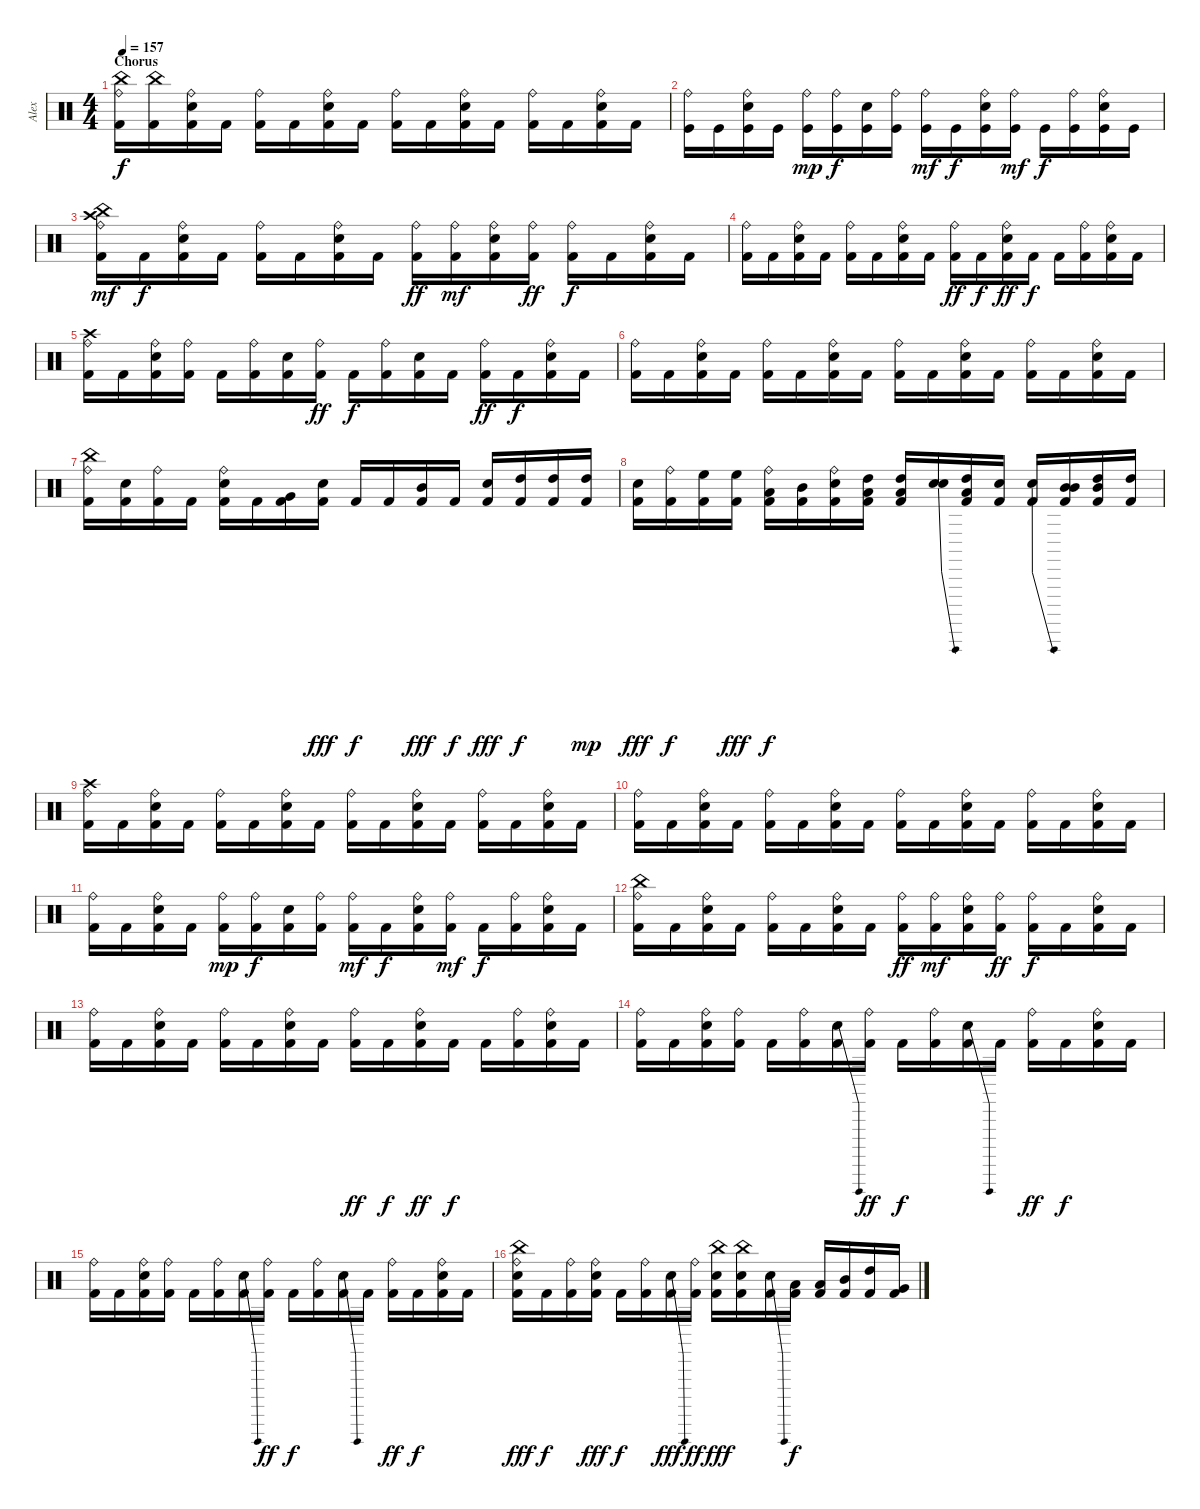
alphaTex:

\track ("Alex" "Alex") {instrument percussion}
\staff {score}
\articulation defaults
\ts (4 4)
\section ("" "Chorus")
\tempo 157
\clef neutral
\ks c
("China (hit)" "Ride (bell)" "Kick (hit) 2").16{dy f} ("China (hit)" "Kick (hit) 2").16 ("Ride (bell)" "Electric Snare (hit)" "Kick (hit) 2").16 "Kick (hit) 2".16 ("Ride (bell)" "Kick (hit) 2").16 "Kick (hit) 2".16 ("Ride (bell)" "Electric Snare (hit)" "Kick (hit) 2").16 "Kick (hit) 2".16 ("Ride (bell)" "Kick (hit) 2").16 "Kick (hit) 2".16 ("Ride (bell)" "Electric Snare (hit)" "Kick (hit) 2").16 "Kick (hit) 2".16 ("Ride (bell)" "Kick (hit) 2").16 "Kick (hit) 2".16 ("Ride (bell)" "Electric Snare (hit)" "Kick (hit) 2").16 "Kick (hit) 2".16 |
("Ride (bell)" "Kick (hit)").16 "Kick (hit)".16 ("Ride (bell)" "Electric Snare (hit)" "Kick (hit)").16 "Kick (hit)".16 ("Ride (bell)" "Kick (hit)").16{dy mp} ("Ride (bell)" "Kick (hit)").16{dy f} ("Electric Snare (hit)" "Kick (hit)").16 ("Ride (bell)" "Kick (hit)").16 ("Ride (bell)" "Kick (hit)").16{dy mf} "Kick (hit)".16{dy f} ("Ride (bell)" "Electric Snare (hit)" "Kick (hit)").16 ("Ride (bell)" "Kick (hit)").16{dy mf} "Kick (hit)".16{dy f} ("Ride (bell)" "Kick (hit)").16 ("Ride (bell)" "Electric Snare (hit)" "Kick (hit)").16 "Kick (hit)".16 |
("Crash high (hit)" "China (hit)" "Ride (bell)" "Kick (hit) 2").16{dy mf} "Kick (hit) 2".16{dy f} ("Ride (bell)" "Electric Snare (hit)" "Kick (hit) 2").16 "Kick (hit) 2".16 ("Ride (bell)" "Kick (hit) 2").16 "Kick (hit) 2".16 ("Ride (bell)" "Electric Snare (hit)" "Kick (hit) 2").16 "Kick (hit) 2".16 ("Ride (bell)" "Kick (hit) 2").16{dy ff} ("Ride (bell)" "Kick (hit) 2").16{dy mf} ("Ride (bell)" "Electric Snare (hit)" "Kick (hit) 2").16 ("Ride (bell)" "Kick (hit) 2").16{dy ff} ("Ride (bell)" "Kick (hit) 2").16{dy f} "Kick (hit) 2".16 ("Ride (bell)" "Electric Snare (hit)" "Kick (hit) 2").16 "Kick (hit) 2".16 |
("Ride (bell)" "Kick (hit) 2").16 "Kick (hit) 2".16 ("Ride (bell)" "Electric Snare (hit)" "Kick (hit) 2").16 "Kick (hit) 2".16 ("Ride (bell)" "Kick (hit) 2").16 "Kick (hit) 2".16 ("Ride (bell)" "Electric Snare (hit)" "Kick (hit) 2").16 "Kick (hit) 2".16 ("Ride (bell)" "Kick (hit) 2").16{dy ff} "Kick (hit) 2".16{dy f} ("Ride (bell)" "Electric Snare (hit)" "Kick (hit) 2").16{dy ff} "Kick (hit) 2".16{dy f} "Kick (hit) 2".16 ("Ride (bell)" "Kick (hit) 2").16 ("Ride (bell)" "Electric Snare (hit)" "Kick (hit) 2").16 "Kick (hit) 2".16 |
("Crash high (hit)" "Ride (bell)" "Kick (hit) 2").16 "Kick (hit) 2".16 ("Ride (bell)" "Electric Snare (hit)" "Kick (hit) 2").16 ("Ride (bell)" "Kick (hit) 2").16 "Kick (hit) 2".16 ("Ride (bell)" "Kick (hit) 2").16 ("Electric Snare (hit)" "Kick (hit) 2").16 ("Ride (bell)" "Kick (hit) 2").16{dy ff} "Kick (hit) 2".16{dy f} ("Ride (bell)" "Kick (hit) 2").16 ("Electric Snare (hit)" "Kick (hit) 2").16 "Kick (hit) 2".16 ("Ride (bell)" "Kick (hit) 2").16{dy ff} "Kick (hit) 2".16{dy f} ("Ride (bell)" "Electric Snare (hit)" "Kick (hit) 2").16 "Kick (hit) 2".16 |
("Ride (bell)" "Kick (hit) 2").16 "Kick (hit) 2".16 ("Ride (bell)" "Electric Snare (hit)" "Kick (hit) 2").16 "Kick (hit) 2".16 ("Ride (bell)" "Kick (hit) 2").16 "Kick (hit) 2".16 ("Ride (bell)" "Electric Snare (hit)" "Kick (hit) 2").16 "Kick (hit) 2".16 ("Ride (bell)" "Kick (hit) 2").16 "Kick (hit) 2".16 ("Ride (bell)" "Electric Snare (hit)" "Kick (hit) 2").16 "Kick (hit) 2".16 ("Ride (bell)" "Kick (hit) 2").16 "Kick (hit) 2".16 ("Ride (bell)" "Electric Snare (hit)" "Kick (hit) 2").16 "Kick (hit) 2".16 |
("China (hit)" "Ride (bell)" "Kick (hit) 2").16 ("Electric Snare (hit)" "Kick (hit) 2").16 ("Ride (bell)" "Kick (hit) 2").16 "Kick (hit) 2".16 ("Ride (bell)" "Electric Snare (hit)" "Kick (hit) 2").16 "Kick (hit) 2".16 ("Very Low Tom (hit)" "Kick (hit) 2").16 ("Electric Snare (hit)" "Kick (hit) 2").16{dy fff} "Kick (hit) 2".16{dy f} "Kick (hit) 2".16 ("Mid Tom (hit)" "Kick (hit) 2").16{dy fff} "Kick (hit) 2".16{dy f} ("Electric Snare (hit)" "Kick (hit) 2").16{dy fff} ("High Tom (hit)" "Kick (hit) 2").16{dy f} ("High Tom (hit)" "Kick (hit) 2").16 ("High Tom (hit)" "Kick (hit) 2").16{dy mp} |
("Electric Snare (hit)" "Kick (hit) 2").16{dy fff} ("Ride (bell)" "Kick (hit) 2").16{dy f} ("High Floor Tom (hit)" "Kick (hit) 2").16 ("High Floor Tom (hit)" "Kick (hit) 2").16{dy fff} ("Ride (bell)" "Low Tom (hit)" "Kick (hit) 2").16{dy f} ("Mid Tom (hit)" "Kick (hit) 2").16 ("Ride (bell)" "Electric Snare (hit)" "Kick (hit) 2").16 ("Low Tom (hit)" "High Tom (hit)" "Kick (hit) 2").16 ("Low Tom (hit)" "High Tom (hit)" "Kick (hit) 2").16 ("Electric Snare (hit)"{be (bend 0 0 60 12)} "Snare (hit)").16 ("Low Tom (hit)" "High Tom (hit)" "Kick (hit) 2").16 ("Electric Snare (hit)" "Kick (hit) 2").16 ("Electric Snare (hit)"{be (bend 0 0 60 12)} "Kick (hit) 2").16 ("Mid Tom (hit)" "Mid Tom (hit)" "Kick (hit) 2").16 ("High Tom (hit)" "Mid Tom (hit)" "Kick (hit) 2").16 ("High Tom (hit)" "Kick (hit) 2").16 |
("Crash high (hit)" "Ride (bell)" "Kick (hit) 2").16 "Kick (hit) 2".16 ("Ride (bell)" "Electric Snare (hit)" "Kick (hit) 2").16 "Kick (hit) 2".16 ("Ride (bell)" "Kick (hit) 2").16 "Kick (hit) 2".16 ("Ride (bell)" "Electric Snare (hit)" "Kick (hit) 2").16 "Kick (hit) 2".16 ("Ride (bell)" "Kick (hit) 2").16 "Kick (hit) 2".16 ("Ride (bell)" "Electric Snare (hit)" "Kick (hit) 2").16 "Kick (hit) 2".16 ("Ride (bell)" "Kick (hit) 2").16 "Kick (hit) 2".16 ("Ride (bell)" "Electric Snare (hit)" "Kick (hit) 2").16 "Kick (hit) 2".16 |
("Ride (bell)" "Kick (hit) 2").16 "Kick (hit) 2".16 ("Ride (bell)" "Electric Snare (hit)" "Kick (hit) 2").16 "Kick (hit) 2".16 ("Ride (bell)" "Kick (hit) 2").16 "Kick (hit) 2".16 ("Ride (bell)" "Electric Snare (hit)" "Kick (hit) 2").16 "Kick (hit) 2".16 ("Ride (bell)" "Kick (hit) 2").16 "Kick (hit) 2".16 ("Ride (bell)" "Electric Snare (hit)" "Kick (hit) 2").16 "Kick (hit) 2".16 ("Ride (bell)" "Kick (hit) 2").16 "Kick (hit) 2".16 ("Ride (bell)" "Electric Snare (hit)" "Kick (hit) 2").16 "Kick (hit) 2".16 |
("Ride (bell)" "Kick (hit) 2").16 "Kick (hit) 2".16 ("Ride (bell)" "Electric Snare (hit)" "Kick (hit) 2").16 "Kick (hit) 2".16 ("Ride (bell)" "Kick (hit) 2").16{dy mp} ("Ride (bell)" "Kick (hit) 2").16{dy f} ("Electric Snare (hit)" "Kick (hit) 2").16 ("Ride (bell)" "Kick (hit) 2").16 ("Ride (bell)" "Kick (hit) 2").16{dy mf} "Kick (hit) 2".16{dy f} ("Ride (bell)" "Electric Snare (hit)" "Kick (hit) 2").16 ("Ride (bell)" "Kick (hit) 2").16{dy mf} "Kick (hit) 2".16{dy f} ("Ride (bell)" "Kick (hit) 2").16 ("Ride (bell)" "Electric Snare (hit)" "Kick (hit) 2").16 "Kick (hit) 2".16 |
("China (hit)" "Ride (bell)" "Kick (hit) 2").16 "Kick (hit) 2".16 ("Ride (bell)" "Electric Snare (hit)" "Kick (hit) 2").16 "Kick (hit) 2".16 ("Ride (bell)" "Kick (hit) 2").16 "Kick (hit) 2".16 ("Ride (bell)" "Electric Snare (hit)" "Kick (hit) 2").16 "Kick (hit) 2".16 ("Ride (bell)" "Kick (hit) 2").16{dy ff} ("Ride (bell)" "Kick (hit) 2").16{dy mf} ("Ride (bell)" "Electric Snare (hit)" "Kick (hit) 2").16 ("Ride (bell)" "Kick (hit) 2").16{dy ff} ("Ride (bell)" "Kick (hit) 2").16{dy f} "Kick (hit) 2".16 ("Ride (bell)" "Electric Snare (hit)" "Kick (hit) 2").16 "Kick (hit) 2".16 |
("Ride (bell)" "Kick (hit) 2").16 "Kick (hit) 2".16 ("Ride (bell)" "Electric Snare (hit)" "Kick (hit) 2").16 "Kick (hit) 2".16 ("Ride (bell)" "Kick (hit) 2").16 "Kick (hit) 2".16 ("Ride (bell)" "Electric Snare (hit)" "Kick (hit) 2").16 "Kick (hit) 2".16 ("Ride (bell)" "Kick (hit) 2").16{dy ff} "Kick (hit) 2".16{dy f} ("Ride (bell)" "Electric Snare (hit)" "Kick (hit) 2").16{dy ff} "Kick (hit) 2".16{dy f} "Kick (hit) 2".16 ("Ride (bell)" "Kick (hit) 2").16 ("Ride (bell)" "Electric Snare (hit)" "Kick (hit) 2").16 "Kick (hit) 2".16 |
("Ride (bell)" "Kick (hit) 2").16 "Kick (hit) 2".16 ("Ride (bell)" "Electric Snare (hit)" "Kick (hit) 2").16 ("Ride (bell)" "Kick (hit) 2").16 "Kick (hit) 2".16 ("Ride (bell)" "Kick (hit) 2").16 ("Electric Snare (hit)"{be (bend 0 0 60 12)} "Kick (hit) 2").16 ("Ride (bell)" "Kick (hit) 2").16{dy ff} "Kick (hit) 2".16{dy f} ("Ride (bell)" "Kick (hit) 2").16 ("Electric Snare (hit)"{be (bend 0 0 60 12)} "Kick (hit) 2").16 "Kick (hit) 2".16 ("Ride (bell)" "Kick (hit) 2").16{dy ff} "Kick (hit) 2".16{dy f} ("Ride (bell)" "Electric Snare (hit)" "Kick (hit) 2").16 "Kick (hit) 2".16 |
("Ride (bell)" "Kick (hit) 2").16 "Kick (hit) 2".16 ("Ride (bell)" "Electric Snare (hit)" "Kick (hit) 2").16 ("Ride (bell)" "Kick (hit) 2").16 "Kick (hit) 2".16 ("Ride (bell)" "Kick (hit) 2").16 ("Electric Snare (hit)"{be (bend 0 0 60 12)} "Kick (hit) 2").16 ("Ride (bell)" "Kick (hit) 2").16{dy ff} "Kick (hit) 2".16{dy f} ("Ride (bell)" "Kick (hit) 2").16 ("Electric Snare (hit)"{be (bend 0 0 60 12)} "Kick (hit) 2").16 "Kick (hit) 2".16 ("Ride (bell)" "Kick (hit) 2").16{dy ff} "Kick (hit) 2".16{dy f} ("Ride (bell)" "Electric Snare (hit)" "Kick (hit) 2").16 "Kick (hit) 2".16 |
("China (hit)" "Ride (bell)" "Electric Snare (hit)" "Kick (hit) 2").16{dy fff} "Kick (hit) 2".16{dy f} ("Ride (bell)" "Kick (hit) 2").16 ("Ride (bell)" "Electric Snare (hit)" "Kick (hit) 2").16{dy fff} "Kick (hit) 2".16{dy f} ("Ride (bell)" "Kick (hit) 2").16 ("Electric Snare (hit)"{be (bend 0 0 60 12)} "Kick (hit) 2").16{dy fff} ("Ride (bell)" "Kick (hit) 2").16{dy ff} ("China (hit)" "Electric Snare (hit)" "Kick (hit) 2").16{dy fff} ("China (hit)" "Electric Snare (hit)" "Kick (hit) 2").16 ("Electric Snare (hit)"{be (bend 0 0 60 12)} "Kick (hit) 2").16 ("Low Tom (hit)" "Kick (hit) 2").16{dy f} ("Low Tom (hit)" "Kick (hit) 2").16 ("Mid Tom (hit)" "Kick (hit) 2").16 ("High Tom (hit)" "Kick (hit) 2").16 ("Very Low Tom (hit)" "Kick (hit) 2").16
